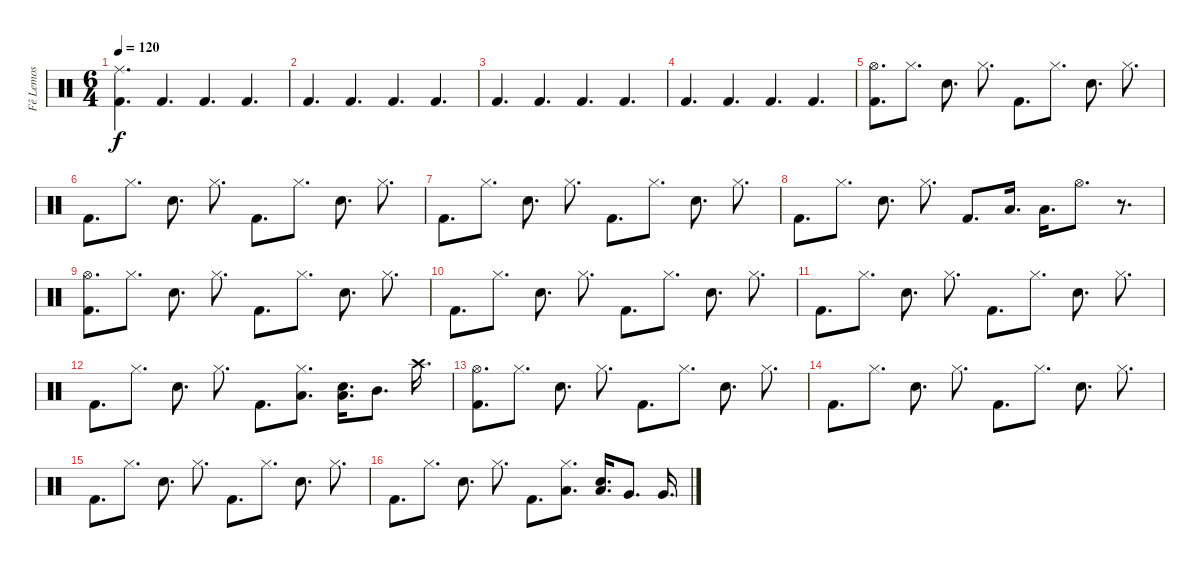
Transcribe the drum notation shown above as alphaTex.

\track ("Fê Lemos" "Fê Lemos") {instrument percussion}
\staff {score}
\articulation defaults
\ts (6 4)
\tempo 120
\clef neutral
\ks c
("Ride (middle)" "Kick (hit) 2").4{d dy f} "Kick (hit) 2".4{d} "Kick (hit) 2".4{d} "Kick (hit) 2".4{d} |
"Kick (hit) 2".4{d} "Kick (hit) 2".4{d} "Kick (hit) 2".4{d} "Kick (hit) 2".4{d} |
"Kick (hit) 2".4{d} "Kick (hit) 2".4{d} "Kick (hit) 2".4{d} "Kick (hit) 2".4{d} |
"Kick (hit) 2".4{d} "Kick (hit) 2".4{d} "Kick (hit) 2".4{d} "Kick (hit) 2".4{d} |
("Hi-Hat (open)" "Kick (hit) 2").8{d} "Hi-Hat (closed)".8{d} "Electric Snare (hit)".8{d} "Hi-Hat (closed)".8{d} "Kick (hit) 2".8{d} "Hi-Hat (closed)".8{d} "Electric Snare (hit)".8{d} "Hi-Hat (closed)".8{d} |
"Kick (hit) 2".8{d} "Hi-Hat (closed)".8{d} "Electric Snare (hit)".8{d} "Hi-Hat (closed)".8{d} "Kick (hit) 2".8{d} "Hi-Hat (closed)".8{d} "Electric Snare (hit)".8{d} "Hi-Hat (closed)".8{d} |
"Kick (hit) 2".8{d} "Hi-Hat (closed)".8{d} "Electric Snare (hit)".8{d} "Hi-Hat (closed)".8{d} "Kick (hit) 2".8{d} "Hi-Hat (closed)".8{d} "Electric Snare (hit)".8{d} "Hi-Hat (closed)".8{d} |
"Kick (hit) 2".8{d} "Hi-Hat (closed)".8{d} "Electric Snare (hit)".8{d} "Hi-Hat (closed)".8{d} "Kick (hit) 2".8{d} "Low Tom (hit)".16{d} "Low Tom (hit)".16{d} "Hi-Hat (open)".8{d} r.8{d} |
("Hi-Hat (open)" "Kick (hit) 2").8{d} "Hi-Hat (closed)".8{d} "Electric Snare (hit)".8{d} "Hi-Hat (closed)".8{d} "Kick (hit) 2".8{d} "Hi-Hat (closed)".8{d} "Electric Snare (hit)".8{d} "Hi-Hat (closed)".8{d} |
"Kick (hit) 2".8{d} "Hi-Hat (closed)".8{d} "Electric Snare (hit)".8{d} "Hi-Hat (closed)".8{d} "Kick (hit) 2".8{d} "Hi-Hat (closed)".8{d} "Electric Snare (hit)".8{d} "Hi-Hat (closed)".8{d} |
"Kick (hit) 2".8{d} "Hi-Hat (closed)".8{d} "Electric Snare (hit)".8{d} "Hi-Hat (closed)".8{d} "Kick (hit) 2".8{d} "Hi-Hat (closed)".8{d} "Electric Snare (hit)".8{d} "Hi-Hat (closed)".8{d} |
"Kick (hit) 2".8{d} "Hi-Hat (closed)".8{d} "Electric Snare (hit)".8{d} "Hi-Hat (closed)".8{d} "Kick (hit) 2".8{d} ("Low Tom (hit)" "Hi-Hat (closed)").8{d} ("Low Tom (hit)" "Electric Snare (hit)").16{d} "Mid Tom (hit)".8{d} "Crash high (hit)".16{d} |
("Hi-Hat (open)" "Kick (hit) 2").8{d} "Hi-Hat (closed)".8{d} "Electric Snare (hit)".8{d} "Hi-Hat (closed)".8{d} "Kick (hit) 2".8{d} "Hi-Hat (closed)".8{d} "Electric Snare (hit)".8{d} "Hi-Hat (closed)".8{d} |
"Kick (hit) 2".8{d} "Hi-Hat (closed)".8{d} "Electric Snare (hit)".8{d} "Hi-Hat (closed)".8{d} "Kick (hit) 2".8{d} "Hi-Hat (closed)".8{d} "Electric Snare (hit)".8{d} "Hi-Hat (closed)".8{d} |
"Kick (hit) 2".8{d} "Hi-Hat (closed)".8{d} "Electric Snare (hit)".8{d} "Hi-Hat (closed)".8{d} "Kick (hit) 2".8{d} "Hi-Hat (closed)".8{d} "Electric Snare (hit)".8{d} "Hi-Hat (closed)".8{d} |
"Kick (hit) 2".8{d} "Hi-Hat (closed)".8{d} "Electric Snare (hit)".8{d} "Hi-Hat (closed)".8{d} "Kick (hit) 2".8{d} ("Low Tom (hit)" "Hi-Hat (closed)").8{d} ("Low Tom (hit)" "Electric Snare (hit)").16{d} "Very Low Tom (hit)".8{d} "Very Low Tom (hit)".16{d}
